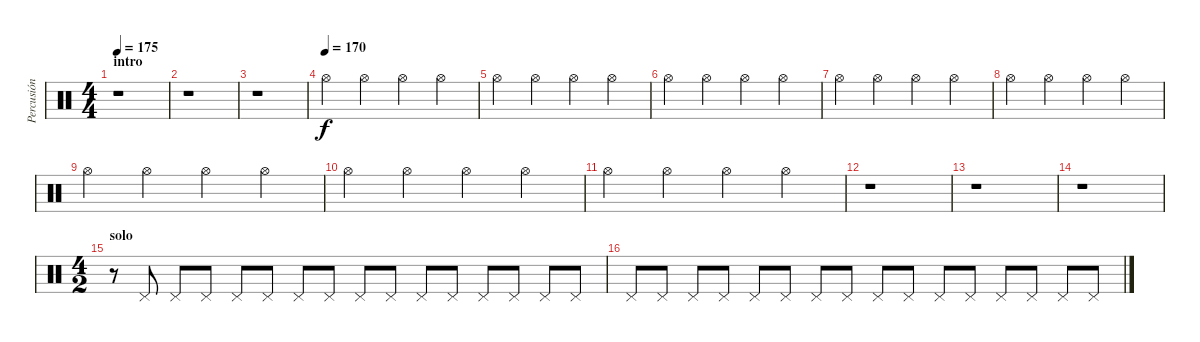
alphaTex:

\track ("Percusión" "Percusión") {instrument percussion}
\staff {score}
\articulation defaults
\ts (4 4)
\section ("" "intro")
\tempo 175
\clef neutral
\ks c
r.1{dy f} |
r.1 |
r.1 |
\tempo (170)
"Hi-Hat (open)".4 "Hi-Hat (open)".4 "Hi-Hat (open)".4 "Hi-Hat (open)".4 |
"Hi-Hat (open)".4 "Hi-Hat (open)".4 "Hi-Hat (open)".4 "Hi-Hat (open)".4 |
"Hi-Hat (open)".4 "Hi-Hat (open)".4 "Hi-Hat (open)".4 "Hi-Hat (open)".4 |
"Hi-Hat (open)".4 "Hi-Hat (open)".4 "Hi-Hat (open)".4 "Hi-Hat (open)".4 |
"Hi-Hat (open)".4 "Hi-Hat (open)".4 "Hi-Hat (open)".4 "Hi-Hat (open)".4 |
"Hi-Hat (open)".4 "Hi-Hat (open)".4 "Hi-Hat (open)".4 "Hi-Hat (open)".4 |
"Hi-Hat (open)".4 "Hi-Hat (open)".4 "Hi-Hat (open)".4 "Hi-Hat (open)".4 |
"Hi-Hat (open)".4 "Hi-Hat (open)".4 "Hi-Hat (open)".4 "Hi-Hat (open)".4 |
r.1 |
r.1 |
r.1 |
\ts (4 2)
\section ("" "solo")
r.8 "Pedal Hi-Hat (hit)".8 "Pedal Hi-Hat (hit)".8 "Pedal Hi-Hat (hit)".8 "Pedal Hi-Hat (hit)".8 "Pedal Hi-Hat (hit)".8 "Pedal Hi-Hat (hit)".8 "Pedal Hi-Hat (hit)".8 "Pedal Hi-Hat (hit)".8 "Pedal Hi-Hat (hit)".8 "Pedal Hi-Hat (hit)".8 "Pedal Hi-Hat (hit)".8 "Pedal Hi-Hat (hit)".8 "Pedal Hi-Hat (hit)".8 "Pedal Hi-Hat (hit)".8 "Pedal Hi-Hat (hit)".8 |
"Pedal Hi-Hat (hit)".8 "Pedal Hi-Hat (hit)".8 "Pedal Hi-Hat (hit)".8 "Pedal Hi-Hat (hit)".8 "Pedal Hi-Hat (hit)".8 "Pedal Hi-Hat (hit)".8 "Pedal Hi-Hat (hit)".8 "Pedal Hi-Hat (hit)".8 "Pedal Hi-Hat (hit)".8 "Pedal Hi-Hat (hit)".8 "Pedal Hi-Hat (hit)".8 "Pedal Hi-Hat (hit)".8 "Pedal Hi-Hat (hit)".8 "Pedal Hi-Hat (hit)".8 "Pedal Hi-Hat (hit)".8 "Pedal Hi-Hat (hit)".8
